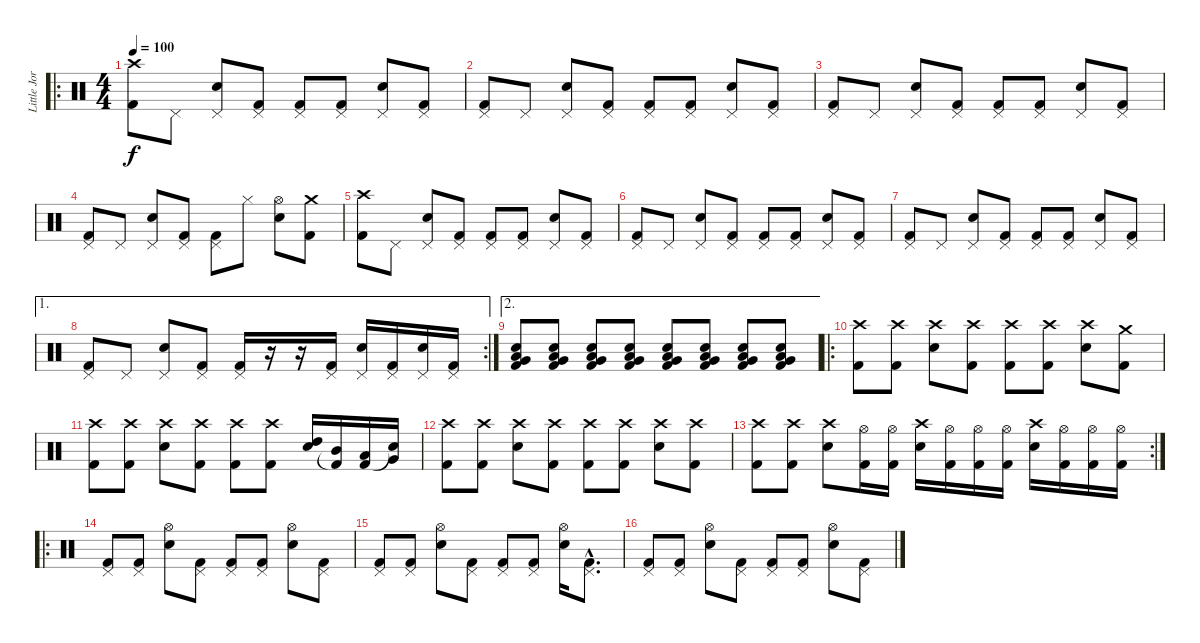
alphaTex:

\track ("Little JorDiSoN" "Little Jor") {instrument percussion}
\staff {score}
\articulation defaults
\ro
\ts (4 4)
\tempo 100
\clef neutral
\ks c
("Crash high (hit)" "Kick (hit) 2").8{dy f} "Pedal Hi-Hat (hit)".8 ("Pedal Hi-Hat (hit)" "Electric Snare (hit)").8 ("Pedal Hi-Hat (hit)" "Kick (hit) 2").8 ("Pedal Hi-Hat (hit)" "Kick (hit) 2").8 ("Pedal Hi-Hat (hit)" "Kick (hit) 2").8 ("Pedal Hi-Hat (hit)" "Electric Snare (hit)").8 ("Pedal Hi-Hat (hit)" "Kick (hit) 2").8 |
("Pedal Hi-Hat (hit)" "Kick (hit) 2").8 "Pedal Hi-Hat (hit)".8 ("Pedal Hi-Hat (hit)" "Electric Snare (hit)").8 ("Pedal Hi-Hat (hit)" "Kick (hit) 2").8 ("Pedal Hi-Hat (hit)" "Kick (hit) 2").8 ("Pedal Hi-Hat (hit)" "Kick (hit) 2").8 ("Pedal Hi-Hat (hit)" "Electric Snare (hit)").8 ("Pedal Hi-Hat (hit)" "Kick (hit) 2").8 |
("Pedal Hi-Hat (hit)" "Kick (hit) 2").8 "Pedal Hi-Hat (hit)".8 ("Pedal Hi-Hat (hit)" "Electric Snare (hit)").8 ("Pedal Hi-Hat (hit)" "Kick (hit) 2").8 ("Pedal Hi-Hat (hit)" "Kick (hit) 2").8 ("Pedal Hi-Hat (hit)" "Kick (hit) 2").8 ("Pedal Hi-Hat (hit)" "Electric Snare (hit)").8 ("Pedal Hi-Hat (hit)" "Kick (hit) 2").8 |
("Pedal Hi-Hat (hit)" "Kick (hit) 2").8 "Pedal Hi-Hat (hit)".8 ("Pedal Hi-Hat (hit)" "Electric Snare (hit)").8 ("Pedal Hi-Hat (hit)" "Kick (hit) 2").8 ("Pedal Hi-Hat (hit)" "Kick (hit) 2").8 "Hi-Hat (closed)".8 ("Hi-Hat (open)" "Electric Snare (hit)").8 ("Crash medium (hit)" "Kick (hit) 2").8 |
("Crash high (hit)" "Kick (hit) 2").8 "Pedal Hi-Hat (hit)".8 ("Pedal Hi-Hat (hit)" "Electric Snare (hit)").8 ("Pedal Hi-Hat (hit)" "Kick (hit) 2").8 ("Pedal Hi-Hat (hit)" "Kick (hit) 2").8 ("Pedal Hi-Hat (hit)" "Kick (hit) 2").8 ("Pedal Hi-Hat (hit)" "Electric Snare (hit)").8 ("Pedal Hi-Hat (hit)" "Kick (hit) 2").8 |
("Pedal Hi-Hat (hit)" "Kick (hit) 2").8 "Pedal Hi-Hat (hit)".8 ("Pedal Hi-Hat (hit)" "Electric Snare (hit)").8 ("Pedal Hi-Hat (hit)" "Kick (hit) 2").8 ("Pedal Hi-Hat (hit)" "Kick (hit) 2").8 ("Pedal Hi-Hat (hit)" "Kick (hit) 2").8 ("Pedal Hi-Hat (hit)" "Electric Snare (hit)").8 ("Pedal Hi-Hat (hit)" "Kick (hit) 2").8 |
("Pedal Hi-Hat (hit)" "Kick (hit) 2").8 "Pedal Hi-Hat (hit)".8 ("Pedal Hi-Hat (hit)" "Electric Snare (hit)").8 ("Pedal Hi-Hat (hit)" "Kick (hit) 2").8 ("Pedal Hi-Hat (hit)" "Kick (hit) 2").8 ("Pedal Hi-Hat (hit)" "Kick (hit) 2").8 ("Pedal Hi-Hat (hit)" "Electric Snare (hit)").8 ("Pedal Hi-Hat (hit)" "Kick (hit) 2").8 |
\ae 1
\rc 2
("Pedal Hi-Hat (hit)" "Kick (hit) 2").8 "Pedal Hi-Hat (hit)".8 ("Pedal Hi-Hat (hit)" "Electric Snare (hit)").8 ("Pedal Hi-Hat (hit)" "Kick (hit) 2").8 ("Pedal Hi-Hat (hit)" "Kick (hit) 2").16 r.16 r.16 ("Pedal Hi-Hat (hit)" "Kick (hit) 2").16 ("Pedal Hi-Hat (hit)" "Electric Snare (hit)").16 ("Pedal Hi-Hat (hit)" "Kick (hit) 2").16 ("Pedal Hi-Hat (hit)" "Electric Snare (hit)").16 ("Pedal Hi-Hat (hit)" "Kick (hit) 2").16 |
\ae 2
("Kick (hit) 2" "Very Low Tom (hit)" "Low Floor Tom (hit)" "Electric Snare (hit)").8 ("Kick (hit) 2" "Very Low Tom (hit)" "Low Floor Tom (hit)" "Electric Snare (hit)").8 ("Kick (hit) 2" "Very Low Tom (hit)" "Low Floor Tom (hit)" "Electric Snare (hit)").8 ("Kick (hit) 2" "Very Low Tom (hit)" "Low Floor Tom (hit)" "Electric Snare (hit)").8 ("Kick (hit) 2" "Very Low Tom (hit)" "Low Floor Tom (hit)" "Electric Snare (hit)").8 ("Kick (hit) 2" "Very Low Tom (hit)" "Low Floor Tom (hit)" "Electric Snare (hit)").8 ("Kick (hit) 2" "Very Low Tom (hit)" "Low Floor Tom (hit)" "Electric Snare (hit)").8 ("Kick (hit) 2" "Very Low Tom (hit)" "Low Floor Tom (hit)" "Electric Snare (hit)").8 |
\ro
("Crash high (hit)" "Kick (hit) 2").8 ("Crash high (hit)" "Kick (hit) 2").8 ("Crash high (hit)" "Electric Snare (hit)").8 ("Crash high (hit)" "Kick (hit) 2").8 ("Crash high (hit)" "Kick (hit) 2").8 ("Crash high (hit)" "Kick (hit) 2").8 ("Crash high (hit)" "Electric Snare (hit)").8 ("Crash medium (hit)" "Kick (hit) 2").8 |
("Crash high (hit)" "Kick (hit) 2").8 ("Crash high (hit)" "Kick (hit) 2").8 ("Crash high (hit)" "Electric Snare (hit)").8 ("Crash high (hit)" "Kick (hit) 2").8 ("Crash high (hit)" "Kick (hit) 2").8 ("Crash high (hit)" "Kick (hit) 2").8 ("High Tom (hit)" "Electric Snare (hit)").16 ("Mid Tom (hit)" "Kick (hit) 2"{t}).16 ("Low Tom (hit)" "Kick (hit) 2").16 ("Very Low Tom (hit)" "Snare (hit)"{t}).16 |
("Crash high (hit)" "Kick (hit) 2").8 ("Crash high (hit)" "Kick (hit) 2").8 ("Crash high (hit)" "Electric Snare (hit)").8 ("Crash high (hit)" "Kick (hit) 2").8 ("Crash high (hit)" "Kick (hit) 2").8 ("Crash high (hit)" "Kick (hit) 2").8 ("Crash high (hit)" "Electric Snare (hit)").8 ("Crash high (hit)" "Kick (hit) 2").8 |
\rc 2
("Crash high (hit)" "Kick (hit) 2").8 ("Crash high (hit)" "Kick (hit) 2").8 ("Crash high (hit)" "Electric Snare (hit)").8 ("Hi-Hat (open)" "Kick (hit) 2").16 ("Hi-Hat (open)" "Kick (hit) 2").16 ("Crash high (hit)" "Electric Snare (hit)").16 ("Hi-Hat (open)" "Kick (hit) 2").16 ("Hi-Hat (open)" "Kick (hit) 2").16 ("Hi-Hat (open)" "Kick (hit) 2").16 ("Crash high (hit)" "Electric Snare (hit)").16 ("Hi-Hat (open)" "Kick (hit) 2").16 ("Hi-Hat (open)" "Kick (hit) 2").16 ("Hi-Hat (open)" "Kick (hit) 2").16 |
\ro
("Pedal Hi-Hat (hit)" "Kick (hit) 2").8 ("Pedal Hi-Hat (hit)" "Kick (hit) 2").8 ("Hi-Hat (open)" "Electric Snare (hit)").8 ("Pedal Hi-Hat (hit)" "Kick (hit) 2").8 ("Pedal Hi-Hat (hit)" "Kick (hit) 2").8 ("Pedal Hi-Hat (hit)" "Kick (hit) 2").8 ("Hi-Hat (open)" "Electric Snare (hit)").8 ("Pedal Hi-Hat (hit)" "Kick (hit) 2").8 |
("Pedal Hi-Hat (hit)" "Kick (hit) 2").8 ("Pedal Hi-Hat (hit)" "Kick (hit) 2").8 ("Hi-Hat (open)" "Electric Snare (hit)").8 ("Pedal Hi-Hat (hit)" "Kick (hit) 2").8 ("Pedal Hi-Hat (hit)" "Kick (hit) 2").8 ("Pedal Hi-Hat (hit)" "Kick (hit) 2").8 ("Hi-Hat (open)" "Electric Snare (hit)").16 ("Pedal Hi-Hat (hit)"{hac} "Kick (hit) 2"{hac}).8{d} |
("Pedal Hi-Hat (hit)" "Kick (hit) 2").8 ("Pedal Hi-Hat (hit)" "Kick (hit) 2").8 ("Hi-Hat (open)" "Electric Snare (hit)").8 ("Pedal Hi-Hat (hit)" "Kick (hit) 2").8 ("Pedal Hi-Hat (hit)" "Kick (hit) 2").8 ("Pedal Hi-Hat (hit)" "Kick (hit) 2").8 ("Hi-Hat (open)" "Electric Snare (hit)").8 ("Pedal Hi-Hat (hit)" "Kick (hit) 2").8
